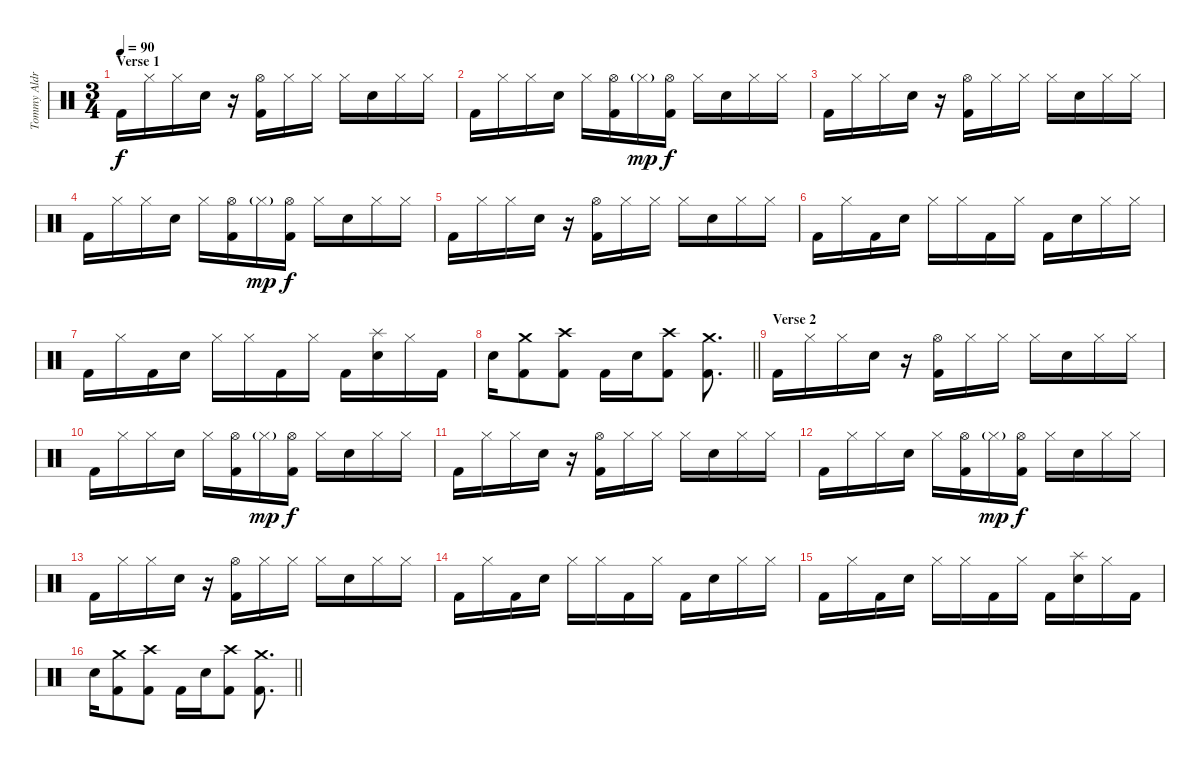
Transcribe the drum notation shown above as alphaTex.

\track ("Tommy Aldridge" "Tommy Aldr") {instrument percussion}
\staff {score}
\articulation defaults
\ts (3 4)
\section ("" "Verse 1")
\tempo 90
\clef neutral
\ks c "Kick (hit) 2".16{dy f} "Hi-Hat (closed)".16 "Hi-Hat (closed)".16 "Snare (hit) 2".16
r.16 ("Hi-Hat (open)" "Kick (hit) 2").16 "Hi-Hat (closed)".16 "Hi-Hat (closed)".16 "Hi-Hat (closed)".16 "Snare (hit) 2".16 "Hi-Hat (closed)".16 "Hi-Hat (closed)".16 |
"Kick (hit) 2".16 "Hi-Hat (closed)".16 "Hi-Hat (closed)".16 "Snare (hit) 2".16 "Hi-Hat (closed)".16 ("Hi-Hat (open)" "Kick (hit) 2").16 "Hi-Hat (closed)"{g}.16{dy mp} ("Hi-Hat (open)" "Kick (hit) 2").16{dy f} "Hi-Hat (closed)".16 "Snare (hit) 2".16 "Hi-Hat (closed)".16 "Hi-Hat (closed)".16 |
"Kick (hit) 2".16 "Hi-Hat (closed)".16 "Hi-Hat (closed)".16 "Snare (hit) 2".16 r.16 ("Hi-Hat (open)" "Kick (hit) 2").16 "Hi-Hat (closed)".16 "Hi-Hat (closed)".16 "Hi-Hat (closed)".16 "Snare (hit) 2".16 "Hi-Hat (closed)".16 "Hi-Hat (closed)".16 |
"Kick (hit) 2".16 "Hi-Hat (closed)".16 "Hi-Hat (closed)".16 "Snare (hit) 2".16 "Hi-Hat (closed)".16 ("Hi-Hat (open)" "Kick (hit) 2").16 "Hi-Hat (closed)"{g}.16{dy mp} ("Hi-Hat (open)" "Kick (hit) 2").16{dy f} "Hi-Hat (closed)".16 "Snare (hit) 2".16 "Hi-Hat (closed)".16 "Hi-Hat (closed)".16 |
"Kick (hit) 2".16 "Hi-Hat (closed)".16 "Hi-Hat (closed)".16 "Snare (hit) 2".16 r.16 ("Hi-Hat (open)" "Kick (hit) 2").16 "Hi-Hat (closed)".16 "Hi-Hat (closed)".16 "Hi-Hat (closed)".16 "Snare (hit) 2".16 "Hi-Hat (closed)".16 "Hi-Hat (closed)".16 |
"Kick (hit) 2".16 "Hi-Hat (closed)".16 "Kick (hit) 2".16 "Snare (hit) 2".16 "Hi-Hat (closed)".16 "Hi-Hat (closed)".16 "Kick (hit) 2".16 "Hi-Hat (closed)".16 "Kick (hit) 2".16 "Snare (hit) 2".16 "Hi-Hat (closed)".16 "Hi-Hat (closed)".16 |
"Kick (hit) 2".16 "Hi-Hat (closed)".16 "Kick (hit) 2".16 "Snare (hit) 2".16 "Hi-Hat (closed)".16 "Hi-Hat (closed)".16 "Kick (hit) 2".16 "Hi-Hat (closed)".16 "Kick (hit) 2".16 ("Splash (hit)" "Snare (hit) 2").16 "Hi-Hat (closed)".16 "Kick (hit) 2".16 |
\barLineRight lightlight "Snare (hit) 2".16
("Crash medium (hit)" "Kick (hit) 2").8 ("Crash high (hit)" "Kick (hit) 2").8 "Kick (hit) 2".16 "Snare (hit) 2".16 ("Crash high (hit)" "Kick (hit) 2").8 ("Crash medium (hit)" "Kick (hit) 2").8{d} |
\section ("" "Verse 2")
"Kick (hit) 2".16 "Hi-Hat (closed)".16 "Hi-Hat (closed)".16 "Snare (hit) 2".16 r.16 ("Hi-Hat (open)" "Kick (hit) 2").16 "Hi-Hat (closed)".16 "Hi-Hat (closed)".16 "Hi-Hat (closed)".16 "Snare (hit) 2".16 "Hi-Hat (closed)".16 "Hi-Hat (closed)".16 |
"Kick (hit) 2".16 "Hi-Hat (closed)".16 "Hi-Hat (closed)".16 "Snare (hit) 2".16 "Hi-Hat (closed)".16 ("Hi-Hat (open)" "Kick (hit) 2").16 "Hi-Hat (closed)"{g}.16{dy mp} ("Hi-Hat (open)" "Kick (hit) 2").16{dy f} "Hi-Hat (closed)".16 "Snare (hit) 2".16 "Hi-Hat (closed)".16 "Hi-Hat (closed)".16 |
"Kick (hit) 2".16 "Hi-Hat (closed)".16 "Hi-Hat (closed)".16 "Snare (hit) 2".16 r.16 ("Hi-Hat (open)" "Kick (hit) 2").16 "Hi-Hat (closed)".16 "Hi-Hat (closed)".16 "Hi-Hat (closed)".16 "Snare (hit) 2".16 "Hi-Hat (closed)".16 "Hi-Hat (closed)".16 |
"Kick (hit) 2".16 "Hi-Hat (closed)".16 "Hi-Hat (closed)".16 "Snare (hit) 2".16 "Hi-Hat (closed)".16 ("Hi-Hat (open)" "Kick (hit) 2").16 "Hi-Hat (closed)"{g}.16{dy mp} ("Hi-Hat (open)" "Kick (hit) 2").16{dy f} "Hi-Hat (closed)".16 "Snare (hit) 2".16 "Hi-Hat (closed)".16 "Hi-Hat (closed)".16 |
"Kick (hit) 2".16 "Hi-Hat (closed)".16 "Hi-Hat (closed)".16 "Snare (hit) 2".16 r.16 ("Hi-Hat (open)" "Kick (hit) 2").16 "Hi-Hat (closed)".16 "Hi-Hat (closed)".16 "Hi-Hat (closed)".16 "Snare (hit) 2".16 "Hi-Hat (closed)".16 "Hi-Hat (closed)".16 |
"Kick (hit) 2".16 "Hi-Hat (closed)".16 "Kick (hit) 2".16 "Snare (hit) 2".16 "Hi-Hat (closed)".16 "Hi-Hat (closed)".16 "Kick (hit) 2".16 "Hi-Hat (closed)".16 "Kick (hit) 2".16 "Snare (hit) 2".16 "Hi-Hat (closed)".16 "Hi-Hat (closed)".16 |
"Kick (hit) 2".16 "Hi-Hat (closed)".16 "Kick (hit) 2".16 "Snare (hit) 2".16 "Hi-Hat (closed)".16 "Hi-Hat (closed)".16 "Kick (hit) 2".16 "Hi-Hat (closed)".16 "Kick (hit) 2".16 ("Splash (hit)" "Snare (hit) 2").16 "Hi-Hat (closed)".16 "Kick (hit) 2".16 |
\barLineRight lightlight "Snare (hit) 2".16
("Crash medium (hit)" "Kick (hit) 2").8 ("Crash high (hit)" "Kick (hit) 2").8 "Kick (hit) 2".16 "Snare (hit) 2".16 ("Crash high (hit)" "Kick (hit) 2").8 ("Crash medium (hit)" "Kick (hit) 2").8{d}
